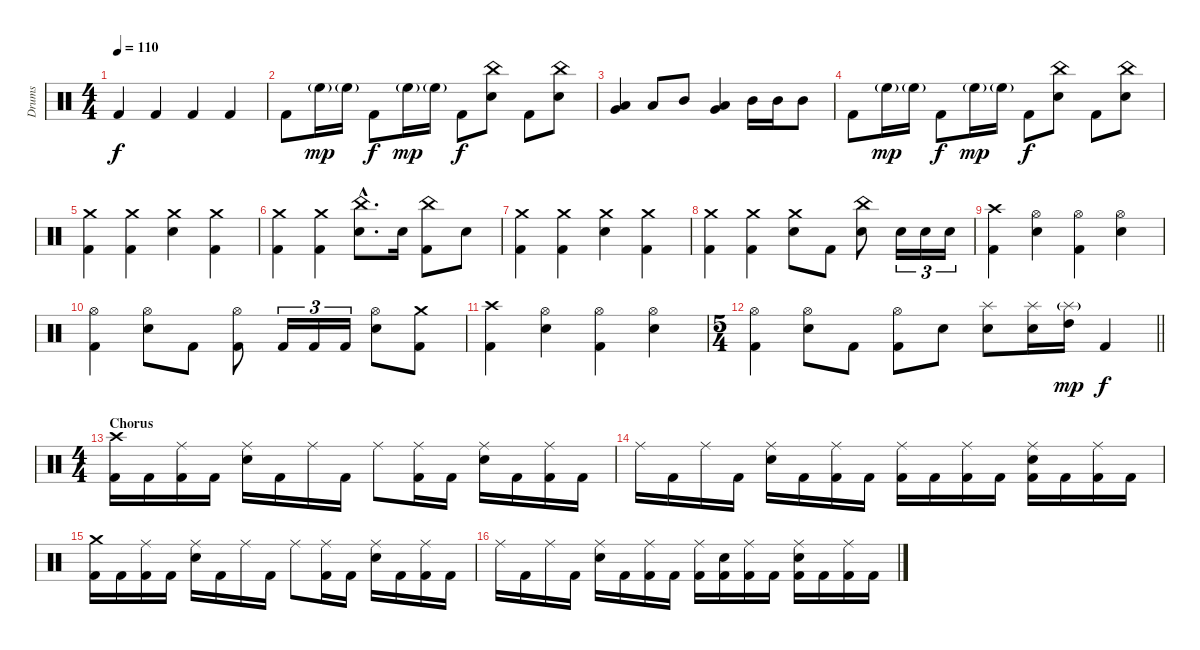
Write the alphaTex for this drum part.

\track ("Drums" "Drums") {instrument percussion}
\staff {score}
\articulation defaults
\ts (4 4)
\section ("" "")
\tempo 110
\clef neutral
\ks c "Kick (hit) 2".4{dy f} "Kick (hit) 2".4 "Kick (hit) 2".4 "Kick (hit) 2".4
|
"Kick (hit) 2".8 "High Floor Tom (hit)"{g}.16{dy mp} "High Floor Tom (hit)"{g}.16 "Kick (hit) 2".8{dy f} "High Floor Tom (hit)"{g}.16{dy mp} "High Floor Tom (hit)"{g}.16 "Kick (hit) 2".8{dy f} ("China (hit)" "Electric Snare (hit)").8 "Kick (hit) 2".8 ("China (hit)" "Electric Snare (hit)").8 |
("Very Low Tom (hit)" "Low Floor Tom (hit)").4 "Low Tom (hit)".8 "Mid Tom (hit)".8 ("Very Low Tom (hit)" "Low Floor Tom (hit)").4 "Mid Tom (hit)".16 "Mid Tom (hit)".16 "Mid Tom (hit)".8 |
"Kick (hit) 2".8 "High Floor Tom (hit)"{g}.16{dy mp} "High Floor Tom (hit)"{g}.16 "Kick (hit) 2".8{dy f} "High Floor Tom (hit)"{g}.16{dy mp} "High Floor Tom (hit)"{g}.16 "Kick (hit) 2".8{dy f} ("China (hit)" "Electric Snare (hit)").8 "Kick (hit) 2".8 ("China (hit)" "Electric Snare (hit)").8 |
("Crash medium (hit)" "Kick (hit) 2").4 ("Crash medium (hit)" "Kick (hit) 2").4 ("Crash medium (hit)" "Electric Snare (hit)").4 ("Crash medium (hit)" "Kick (hit) 2").4 |
("Crash medium (hit)" "Kick (hit) 2").4 ("Crash medium (hit)" "Kick (hit) 2").4 ("China (hit)"{hac} "Electric Snare (hit)"{hac}).8{d} "Electric Snare (hit)".16 ("China (hit)" "Kick (hit) 2").8 "Electric Snare (hit)".8 |
("Crash medium (hit)" "Kick (hit) 2").4 ("Crash medium (hit)" "Kick (hit) 2").4 ("Crash medium (hit)" "Electric Snare (hit)").4 ("Crash medium (hit)" "Kick (hit) 2").4 |
("Crash medium (hit)" "Kick (hit) 2").4 ("Crash medium (hit)" "Kick (hit) 2").4 ("Crash medium (hit)" "Electric Snare (hit)").8 "Kick (hit) 2".8 ("China (hit)" "Electric Snare (hit)").8 "Electric Snare (hit)".16{tu (3 2)} "Electric Snare (hit)".16{tu (3 2)} "Electric Snare (hit)".16{tu (3 2)} |
("Crash high (hit)" "Kick (hit) 2").4 ("Hi-Hat (open)" "Electric Snare (hit)").4 ("Hi-Hat (open)" "Kick (hit) 2").4 ("Hi-Hat (open)" "Electric Snare (hit)").4 |
("Hi-Hat (open)" "Kick (hit) 2").4 ("Hi-Hat (open)" "Electric Snare (hit)").8 "Kick (hit) 2".8 ("Hi-Hat (open)" "Kick (hit) 2").8 "Kick (hit) 2".16{tu (3 2)} "Kick (hit) 2".16{tu (3 2)} "Kick (hit) 2".16{tu (3 2)} ("Hi-Hat (open)" "Electric Snare (hit)").8 ("Crash medium (hit)" "Kick (hit) 2").8 |
("Crash high (hit)" "Kick (hit) 2").4 ("Hi-Hat (open)" "Electric Snare (hit)").4 ("Hi-Hat (open)" "Kick (hit) 2").4 ("Hi-Hat (open)" "Electric Snare (hit)").4 |
\ts (5 4)
\barLineRight lightlight
("Hi-Hat (open)" "Kick (hit) 2").4 ("Hi-Hat (open)" "Electric Snare (hit)").8 "Kick (hit) 2".8 ("Hi-Hat (open)" "Kick (hit) 2").8 "Electric Snare (hit)".8 ("Splash (hit)" "Electric Snare (hit)").8 ("Splash (hit)" "Electric Snare (hit)").16 ("Splash (hit)"{g} "High Tom (hit)").16{dy mp} "Kick (hit) 2".4{dy f} |
\ts (4 4)
\section ("" "Chorus")
("Crash high (hit)" "Kick (hit) 2").16 "Kick (hit) 2".16 ("Ride (middle)" "Kick (hit) 2").16 "Kick (hit) 2".16 ("Ride (middle)" "Electric Snare (hit)").16 "Kick (hit) 2".16 "Ride (middle)".16 "Kick (hit) 2".16 "Ride (middle)".8 ("Ride (middle)" "Kick (hit) 2").16 "Kick (hit) 2".16 ("Ride (middle)" "Electric Snare (hit)").16 "Kick (hit) 2".16 ("Ride (middle)" "Kick (hit) 2").16 "Kick (hit) 2".16 |
"Ride (middle)".16 "Kick (hit) 2".16 "Ride (middle)".16 "Kick (hit) 2".16 ("Ride (middle)" "Electric Snare (hit)").16 "Kick (hit) 2".16 ("Ride (middle)" "Kick (hit) 2").16 "Kick (hit) 2".16 ("Ride (middle)" "Kick (hit) 2").16 "Kick (hit) 2".16 ("Ride (middle)" "Kick (hit) 2").16 "Kick (hit) 2".16 ("Ride (middle)" "Electric Snare (hit)" "Kick (hit) 2").16 "Kick (hit) 2".16 ("Ride (middle)" "Kick (hit) 2").16 "Kick (hit) 2".16 |
("Crash medium (hit)" "Kick (hit) 2").16 "Kick (hit) 2".16 ("Ride (middle)" "Kick (hit) 2").16 "Kick (hit) 2".16 ("Ride (middle)" "Electric Snare (hit)").16 "Kick (hit) 2".16 "Ride (middle)".16 "Kick (hit) 2".16 "Ride (middle)".8 ("Ride (middle)" "Kick (hit) 2").16 "Kick (hit) 2".16 ("Ride (middle)" "Electric Snare (hit)").16 "Kick (hit) 2".16 ("Ride (middle)" "Kick (hit) 2").16 "Kick (hit) 2".16 |
"Ride (middle)".16 "Kick (hit) 2".16 "Ride (middle)".16 "Kick (hit) 2".16 ("Ride (middle)" "Electric Snare (hit)").16 "Kick (hit) 2".16 ("Ride (middle)" "Kick (hit) 2").16 "Kick (hit) 2".16 ("Ride (middle)" "Kick (hit) 2").16 ("Electric Snare (hit)" "Kick (hit) 2").16 ("Ride (middle)" "Kick (hit) 2").16 "Kick (hit) 2".16 ("Ride (middle)" "Electric Snare (hit)" "Kick (hit) 2").16 "Kick (hit) 2".16 ("Ride (middle)" "Kick (hit) 2").16 "Kick (hit) 2".16
